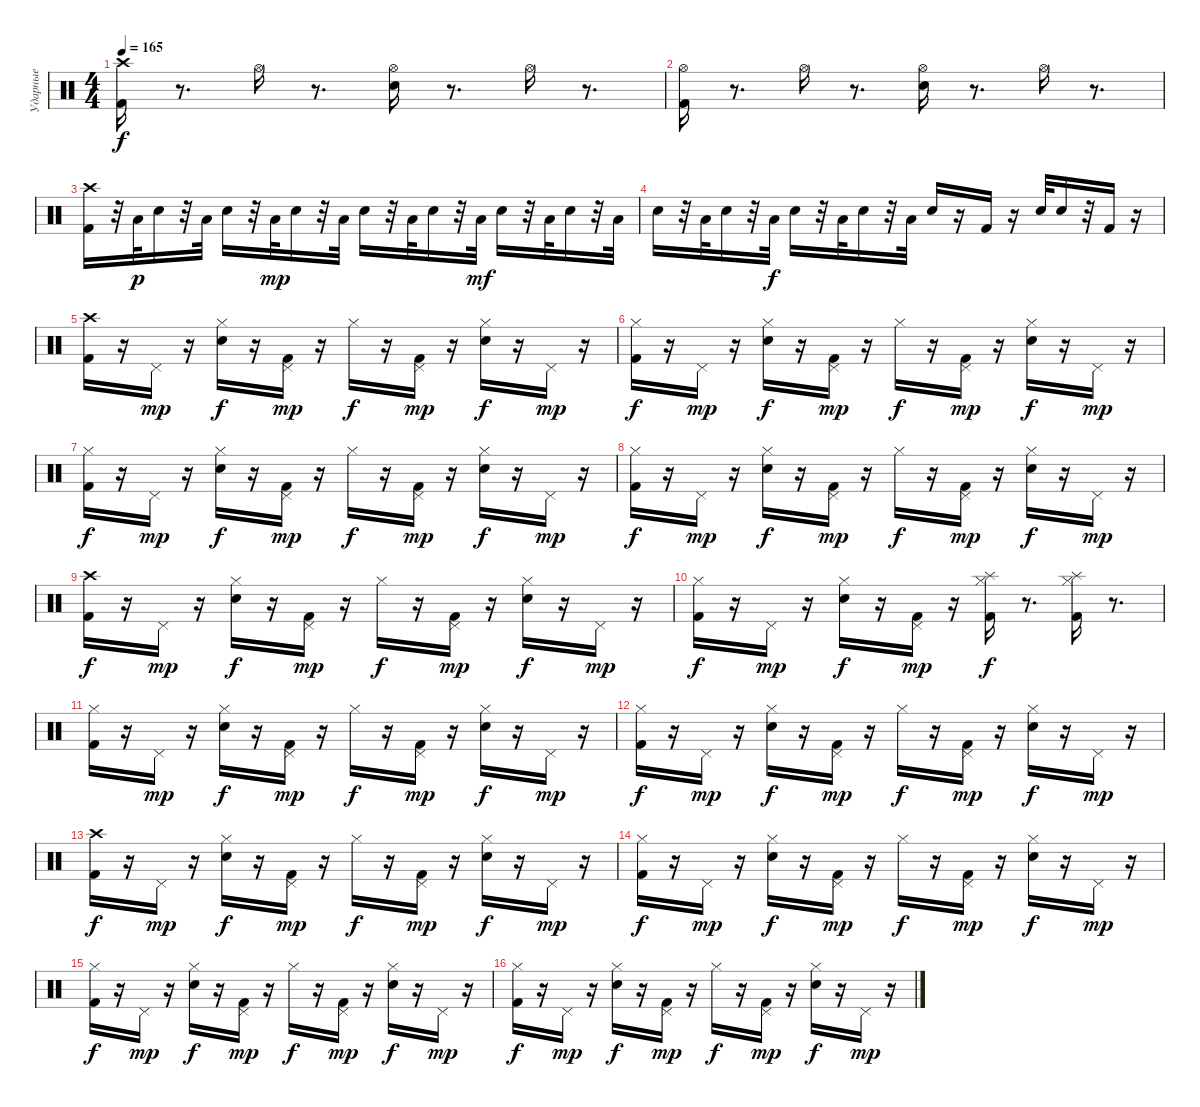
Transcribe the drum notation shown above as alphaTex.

\track ("Ударные" "Ударные") {instrument percussion}
\staff {score}
\articulation defaults
\ts (4 4)
\tempo 165
\clef neutral
\ks c
("Crash high (hit)" "Kick (hit) 2").16{dy f} r.8{d} "Hi-Hat (open)".16 r.8{d} ("Hi-Hat (open)" "Electric Snare (hit)").16 r.8{d} "Hi-Hat (open)".16 r.8{d} |
("Kick (hit) 2" "Hi-Hat (open)").16 r.8{d} "Hi-Hat (open)".16 r.8{d} ("Hi-Hat (open)" "Electric Snare (hit)").16 r.8{d} "Hi-Hat (open)".16 r.8{d} |
("Crash high (hit)" "Kick (hit) 2").16 r.32 "Low Floor Tom (hit)".32{dy p} "Electric Snare (hit)".16 r.32 "Low Floor Tom (hit)".32 "Electric Snare (hit)".16 r.32 "Low Floor Tom (hit)".32{dy mp} "Electric Snare (hit)".16 r.32 "Low Floor Tom (hit)".32 "Electric Snare (hit)".16 r.32 "Low Floor Tom (hit)".32 "Electric Snare (hit)".16 r.32 "Low Floor Tom (hit)".32{dy mf} "Electric Snare (hit)".16 r.32 "Low Floor Tom (hit)".32 "Electric Snare (hit)".16 r.32 "Low Floor Tom (hit)".32 |
"Electric Snare (hit)".16 r.32 "Low Floor Tom (hit)".32 "Electric Snare (hit)".16 r.32 "Low Floor Tom (hit)".32{dy f} "Electric Snare (hit)".16 r.32 "Low Floor Tom (hit)".32 "Electric Snare (hit)".16 r.32 "Low Floor Tom (hit)".32 "Electric Snare (hit)".16 r.16 "Kick (hit) 2".16 r.16 "Electric Snare (hit)".32 "Electric Snare (hit)".16 r.32 "Kick (hit) 2".16 r.16 |
("Crash high (hit)" "Kick (hit) 2").16 r.16 "Pedal Hi-Hat (hit)".16{dy mp} r.16 ("Electric Snare (hit)" "Hi-Hat (closed)").16{dy f} r.16 ("Kick (hit) 2" "Pedal Hi-Hat (hit)").16{dy mp} r.16 "Hi-Hat (closed)".16{dy f} r.16 ("Pedal Hi-Hat (hit)" "Kick (hit) 2").16{dy mp} r.16 ("Hi-Hat (closed)" "Electric Snare (hit)").16{dy f} r.16 "Pedal Hi-Hat (hit)".16{dy mp} r.16 |
("Kick (hit) 2" "Hi-Hat (closed)").16{dy f} r.16 "Pedal Hi-Hat (hit)".16{dy mp} r.16 ("Electric Snare (hit)" "Hi-Hat (closed)").16{dy f} r.16 ("Pedal Hi-Hat (hit)" "Kick (hit) 2").16{dy mp} r.16 "Hi-Hat (closed)".16{dy f} r.16 ("Kick (hit) 2" "Pedal Hi-Hat (hit)").16{dy mp} r.16 ("Electric Snare (hit)" "Hi-Hat (closed)").16{dy f} r.16 "Pedal Hi-Hat (hit)".16{dy mp} r.16 |
("Hi-Hat (closed)" "Kick (hit) 2").16{dy f} r.16 "Pedal Hi-Hat (hit)".16{dy mp} r.16 ("Electric Snare (hit)" "Hi-Hat (closed)").16{dy f} r.16 ("Kick (hit) 2" "Pedal Hi-Hat (hit)").16{dy mp} r.16 "Hi-Hat (closed)".16{dy f} r.16 ("Kick (hit) 2" "Pedal Hi-Hat (hit)").16{dy mp} r.16 ("Hi-Hat (closed)" "Electric Snare (hit)").16{dy f} r.16 "Pedal Hi-Hat (hit)".16{dy mp} r.16 |
("Hi-Hat (closed)" "Kick (hit) 2").16{dy f} r.16 "Pedal Hi-Hat (hit)".16{dy mp} r.16 ("Hi-Hat (closed)" "Electric Snare (hit)").16{dy f} r.16 ("Pedal Hi-Hat (hit)" "Kick (hit) 2").16{dy mp} r.16 "Hi-Hat (closed)".16{dy f} r.16 ("Pedal Hi-Hat (hit)" "Kick (hit) 2").16{dy mp} r.16 ("Electric Snare (hit)" "Hi-Hat (closed)").16{dy f} r.16 "Pedal Hi-Hat (hit)".16{dy mp} r.16 |
("Kick (hit) 2" "Crash high (hit)").16{dy f} r.16 "Pedal Hi-Hat (hit)".16{dy mp} r.16 ("Hi-Hat (closed)" "Electric Snare (hit)").16{dy f} r.16 ("Pedal Hi-Hat (hit)" "Kick (hit) 2").16{dy mp} r.16 "Hi-Hat (closed)".16{dy f} r.16 ("Pedal Hi-Hat (hit)" "Kick (hit) 2").16{dy mp} r.16 ("Hi-Hat (closed)" "Electric Snare (hit)").16{dy f} r.16 "Pedal Hi-Hat (hit)".16{dy mp} r.16 |
("Hi-Hat (closed)" "Kick (hit) 2").16{dy f} r.16 "Pedal Hi-Hat (hit)".16{dy mp} r.16 ("Electric Snare (hit)" "Hi-Hat (closed)").16{dy f} r.16 ("Kick (hit) 2" "Pedal Hi-Hat (hit)").16{dy mp} r.16 ("Hi-Hat (closed)" "Kick (hit) 2" "Splash (hit)").16{dy f} r.8{d} ("Kick (hit) 2" "Hi-Hat (closed)" "Splash (hit)").16 r.8{d} |
("Hi-Hat (closed)" "Kick (hit) 2").16 r.16 "Pedal Hi-Hat (hit)".16{dy mp} r.16 ("Hi-Hat (closed)" "Electric Snare (hit)").16{dy f} r.16 ("Pedal Hi-Hat (hit)" "Kick (hit) 2").16{dy mp} r.16 "Hi-Hat (closed)".16{dy f} r.16 ("Kick (hit) 2" "Pedal Hi-Hat (hit)").16{dy mp} r.16 ("Electric Snare (hit)" "Hi-Hat (closed)").16{dy f} r.16 "Pedal Hi-Hat (hit)".16{dy mp} r.16 |
("Hi-Hat (closed)" "Kick (hit) 2").16{dy f} r.16 "Pedal Hi-Hat (hit)".16{dy mp} r.16 ("Hi-Hat (closed)" "Electric Snare (hit)").16{dy f} r.16 ("Kick (hit) 2" "Pedal Hi-Hat (hit)").16{dy mp} r.16 "Hi-Hat (closed)".16{dy f} r.16 ("Kick (hit) 2" "Pedal Hi-Hat (hit)").16{dy mp} r.16 ("Hi-Hat (closed)" "Electric Snare (hit)").16{dy f} r.16 "Pedal Hi-Hat (hit)".16{dy mp} r.16 |
("Kick (hit) 2" "Crash high (hit)").16{dy f} r.16 "Pedal Hi-Hat (hit)".16{dy mp} r.16 ("Electric Snare (hit)" "Hi-Hat (closed)").16{dy f} r.16 ("Pedal Hi-Hat (hit)" "Kick (hit) 2").16{dy mp} r.16 "Hi-Hat (closed)".16{dy f} r.16 ("Pedal Hi-Hat (hit)" "Kick (hit) 2").16{dy mp} r.16 ("Electric Snare (hit)" "Hi-Hat (closed)").16{dy f} r.16 "Pedal Hi-Hat (hit)".16{dy mp} r.16 |
("Kick (hit) 2" "Hi-Hat (closed)").16{dy f} r.16 "Pedal Hi-Hat (hit)".16{dy mp} r.16 ("Hi-Hat (closed)" "Electric Snare (hit)").16{dy f} r.16 ("Kick (hit) 2" "Pedal Hi-Hat (hit)").16{dy mp} r.16 "Hi-Hat (closed)".16{dy f} r.16 ("Kick (hit) 2" "Pedal Hi-Hat (hit)").16{dy mp} r.16 ("Hi-Hat (closed)" "Electric Snare (hit)").16{dy f} r.16 "Pedal Hi-Hat (hit)".16{dy mp} r.16 |
("Hi-Hat (closed)" "Kick (hit) 2").16{dy f} r.16 "Pedal Hi-Hat (hit)".16{dy mp} r.16 ("Electric Snare (hit)" "Hi-Hat (closed)").16{dy f} r.16 ("Kick (hit) 2" "Pedal Hi-Hat (hit)").16{dy mp} r.16 "Hi-Hat (closed)".16{dy f} r.16 ("Pedal Hi-Hat (hit)" "Kick (hit) 2").16{dy mp} r.16 ("Electric Snare (hit)" "Hi-Hat (closed)").16{dy f} r.16 "Pedal Hi-Hat (hit)".16{dy mp} r.16 |
("Kick (hit) 2" "Hi-Hat (closed)").16{dy f} r.16 "Pedal Hi-Hat (hit)".16{dy mp} r.16 ("Hi-Hat (closed)" "Electric Snare (hit)").16{dy f} r.16 ("Pedal Hi-Hat (hit)" "Kick (hit) 2").16{dy mp} r.16 "Hi-Hat (closed)".16{dy f} r.16 ("Kick (hit) 2" "Pedal Hi-Hat (hit)").16{dy mp} r.16 ("Electric Snare (hit)" "Hi-Hat (closed)").16{dy f} r.16 "Pedal Hi-Hat (hit)".16{dy mp} r.16
